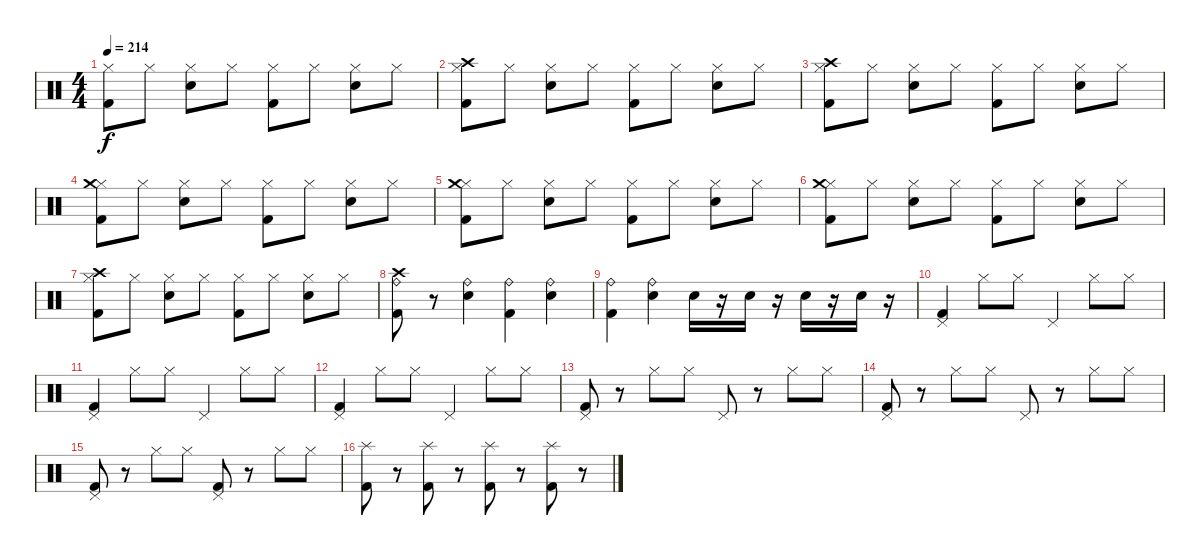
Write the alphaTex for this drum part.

\track "" {instrument percussion}
\staff {score}
\articulation defaults
\ts (4 4)
\tempo 214
\clef neutral
\ks c
("Hi-Hat (closed)" "Kick (hit) 2").8{dy f} "Hi-Hat (closed)".8 ("Hi-Hat (closed)" "Electric Snare (hit)").8 "Hi-Hat (closed)".8 ("Hi-Hat (closed)" "Kick (hit) 2").8 "Hi-Hat (closed)".8 ("Hi-Hat (closed)" "Electric Snare (hit)").8 "Hi-Hat (closed)".8 |
("Hi-Hat (closed)" "Crash high (hit)" "Kick (hit) 2").8 "Hi-Hat (closed)".8 ("Hi-Hat (closed)" "Electric Snare (hit)").8 "Hi-Hat (closed)".8 ("Hi-Hat (closed)" "Kick (hit) 2").8 "Hi-Hat (closed)".8 ("Hi-Hat (closed)" "Electric Snare (hit)").8 "Hi-Hat (closed)".8 |
("Hi-Hat (closed)" "Crash high (hit)" "Kick (hit) 2").8 "Hi-Hat (closed)".8 ("Hi-Hat (closed)" "Electric Snare (hit)").8 "Hi-Hat (closed)".8 ("Hi-Hat (closed)" "Kick (hit) 2").8 "Hi-Hat (closed)".8 ("Hi-Hat (closed)" "Electric Snare (hit)").8 "Hi-Hat (closed)".8 |
("Hi-Hat (closed)" "Crash medium (hit)" "Kick (hit) 2").8 "Hi-Hat (closed)".8 ("Hi-Hat (closed)" "Electric Snare (hit)").8 "Hi-Hat (closed)".8 ("Hi-Hat (closed)" "Kick (hit) 2").8 "Hi-Hat (closed)".8 ("Hi-Hat (closed)" "Electric Snare (hit)").8 "Hi-Hat (closed)".8 |
("Hi-Hat (closed)" "Crash medium (hit)" "Kick (hit) 2").8 "Hi-Hat (closed)".8 ("Hi-Hat (closed)" "Electric Snare (hit)").8 "Hi-Hat (closed)".8 ("Hi-Hat (closed)" "Kick (hit) 2").8 "Hi-Hat (closed)".8 ("Hi-Hat (closed)" "Electric Snare (hit)").8 "Hi-Hat (closed)".8 |
("Hi-Hat (closed)" "Kick (hit) 2" "Crash medium (hit)").8 "Hi-Hat (closed)".8 ("Hi-Hat (closed)" "Electric Snare (hit)").8 "Hi-Hat (closed)".8 ("Hi-Hat (closed)" "Kick (hit) 2").8 "Hi-Hat (closed)".8 ("Hi-Hat (closed)" "Electric Snare (hit)").8 "Hi-Hat (closed)".8 |
("Hi-Hat (closed)" "Kick (hit) 2" "Crash high (hit)").8 "Hi-Hat (closed)".8 ("Hi-Hat (closed)" "Electric Snare (hit)").8 "Hi-Hat (closed)".8 ("Hi-Hat (closed)" "Kick (hit) 2").8 "Hi-Hat (closed)".8 ("Hi-Hat (closed)" "Electric Snare (hit)").8 "Hi-Hat (closed)".8 |
("Crash high (hit)" "Kick (hit) 2" "Ride (bell)").8 r.8 ("Ride (bell)" "Electric Snare (hit)").4 ("Ride (bell)" "Kick (hit) 2").4 ("Ride (bell)" "Electric Snare (hit)").4 |
("Ride (bell)" "Kick (hit) 2").4 ("Ride (bell)" "Electric Snare (hit)").4 "Electric Snare (hit)".16 r.16 "Electric Snare (hit)".16 r.16 "Electric Snare (hit)".16 r.16 "Electric Snare (hit)".16 r.16 |
("Pedal Hi-Hat (hit)" "Kick (hit) 2").4 "Hi-Hat (closed)".8 "Hi-Hat (closed)".8 "Pedal Hi-Hat (hit)".4 "Hi-Hat (closed)".8 "Hi-Hat (closed)".8 |
("Pedal Hi-Hat (hit)" "Kick (hit) 2").4 "Hi-Hat (closed)".8 "Hi-Hat (closed)".8 "Pedal Hi-Hat (hit)".4 "Hi-Hat (closed)".8 "Hi-Hat (closed)".8 |
("Pedal Hi-Hat (hit)" "Kick (hit) 2").4 "Hi-Hat (closed)".8 "Hi-Hat (closed)".8 "Pedal Hi-Hat (hit)".4 "Hi-Hat (closed)".8 "Hi-Hat (closed)".8 |
("Pedal Hi-Hat (hit)" "Kick (hit) 2").8 r.8 "Hi-Hat (closed)".8 "Hi-Hat (closed)".8 "Pedal Hi-Hat (hit)".8 r.8 "Hi-Hat (closed)".8 "Hi-Hat (closed)".8 |
("Pedal Hi-Hat (hit)" "Kick (hit) 2").8 r.8 "Hi-Hat (closed)".8 "Hi-Hat (closed)".8 "Pedal Hi-Hat (hit)".8 r.8 "Hi-Hat (closed)".8 "Hi-Hat (closed)".8 |
("Pedal Hi-Hat (hit)" "Kick (hit) 2").8 r.8 "Hi-Hat (closed)".8 "Hi-Hat (closed)".8 ("Kick (hit) 2" "Pedal Hi-Hat (hit)").8 r.8 "Hi-Hat (closed)".8 "Hi-Hat (closed)".8 |
("Splash (hit)" "Kick (hit) 2").8 r.8 ("Splash (hit)" "Kick (hit) 2").8 r.8 ("Splash (hit)" "Kick (hit) 2").8 r.8 ("Splash (hit)" "Kick (hit) 2").8 r.8
